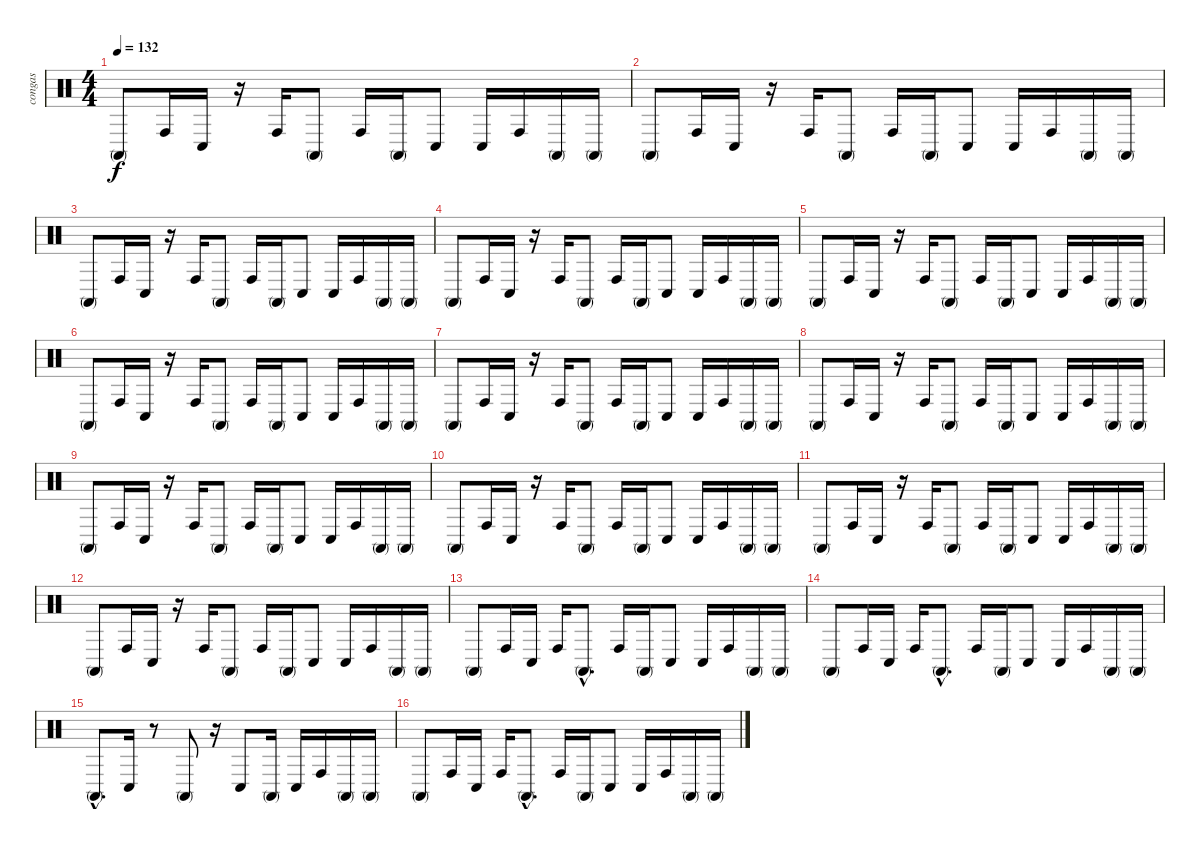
\track ("congas" "congas") {instrument percussion}
\staff {score}
\articulation defaults
\ts (4 4)
\tempo 132
\clef neutral
\ks c "Conga high (mute)".8{dy f} "Conga high (hit)".16 "Conga low (hit)".16
r.16 "Conga high (hit)".16 "Conga high (mute)".8 "Conga high (hit)".16 "Conga high (mute)".16 "Conga low (hit)".8 "Conga low (hit)".16 "Conga high (hit)".16 "Conga high (mute)".16 "Conga high (mute)".16 |
"Conga high (mute)".8 "Conga high (hit)".16 "Conga low (hit)".16 r.16 "Conga high (hit)".16 "Conga high (mute)".8 "Conga high (hit)".16 "Conga high (mute)".16 "Conga low (hit)".8 "Conga low (hit)".16 "Conga high (hit)".16 "Conga high (mute)".16 "Conga high (mute)".16 |
"Conga high (mute)".8 "Conga high (hit)".16 "Conga low (hit)".16 r.16 "Conga high (hit)".16 "Conga high (mute)".8 "Conga high (hit)".16 "Conga high (mute)".16 "Conga low (hit)".8 "Conga low (hit)".16 "Conga high (hit)".16 "Conga high (mute)".16 "Conga high (mute)".16 |
"Conga high (mute)".8 "Conga high (hit)".16 "Conga low (hit)".16 r.16 "Conga high (hit)".16 "Conga high (mute)".8 "Conga high (hit)".16 "Conga high (mute)".16 "Conga low (hit)".8 "Conga low (hit)".16 "Conga high (hit)".16 "Conga high (mute)".16 "Conga high (mute)".16 |
"Conga high (mute)".8 "Conga high (hit)".16 "Conga low (hit)".16 r.16 "Conga high (hit)".16 "Conga high (mute)".8 "Conga high (hit)".16 "Conga high (mute)".16 "Conga low (hit)".8 "Conga low (hit)".16 "Conga high (hit)".16 "Conga high (mute)".16 "Conga high (mute)".16 |
"Conga high (mute)".8 "Conga high (hit)".16 "Conga low (hit)".16 r.16 "Conga high (hit)".16 "Conga high (mute)".8 "Conga high (hit)".16 "Conga high (mute)".16 "Conga low (hit)".8 "Conga low (hit)".16 "Conga high (hit)".16 "Conga high (mute)".16 "Conga high (mute)".16 |
"Conga high (mute)".8 "Conga high (hit)".16 "Conga low (hit)".16 r.16 "Conga high (hit)".16 "Conga high (mute)".8 "Conga high (hit)".16 "Conga high (mute)".16 "Conga low (hit)".8 "Conga low (hit)".16 "Conga high (hit)".16 "Conga high (mute)".16 "Conga high (mute)".16 |
"Conga high (mute)".8 "Conga high (hit)".16 "Conga low (hit)".16 r.16 "Conga high (hit)".16 "Conga high (mute)".8 "Conga high (hit)".16 "Conga high (mute)".16 "Conga low (hit)".8 "Conga low (hit)".16 "Conga high (hit)".16 "Conga high (mute)".16 "Conga high (mute)".16 |
"Conga high (mute)".8 "Conga high (hit)".16 "Conga low (hit)".16 r.16 "Conga high (hit)".16 "Conga high (mute)".8 "Conga high (hit)".16 "Conga high (mute)".16 "Conga low (hit)".8 "Conga low (hit)".16 "Conga high (hit)".16 "Conga high (mute)".16 "Conga high (mute)".16 |
"Conga high (mute)".8 "Conga high (hit)".16 "Conga low (hit)".16 r.16 "Conga high (hit)".16 "Conga high (mute)".8 "Conga high (hit)".16 "Conga high (mute)".16 "Conga low (hit)".8 "Conga low (hit)".16 "Conga high (hit)".16 "Conga high (mute)".16 "Conga high (mute)".16 |
"Conga high (mute)".8 "Conga high (hit)".16 "Conga low (hit)".16 r.16 "Conga high (hit)".16 "Conga high (mute)".8 "Conga high (hit)".16 "Conga high (mute)".16 "Conga low (hit)".8 "Conga low (hit)".16 "Conga high (hit)".16 "Conga high (mute)".16 "Conga high (mute)".16 |
"Conga high (mute)".8 "Conga high (hit)".16 "Conga low (hit)".16 r.16 "Conga high (hit)".16 "Conga high (mute)".8 "Conga high (hit)".16 "Conga high (mute)".16 "Conga low (hit)".8 "Conga low (hit)".16 "Conga high (hit)".16 "Conga high (mute)".16 "Conga high (mute)".16 |
"Conga high (mute)".8 "Conga high (hit)".16 "Conga low (hit)".16 "Conga high (hit)".16 "Conga high (mute)"{hac}.8{d} "Conga high (hit)".16 "Conga high (mute)".16 "Conga low (hit)".8 "Conga low (hit)".16 "Conga high (hit)".16 "Conga high (mute)".16 "Conga high (mute)".16 |
"Conga high (mute)".8 "Conga high (hit)".16 "Conga low (hit)".16 "Conga high (hit)".16 "Conga high (mute)"{hac}.8{d} "Conga high (hit)".16 "Conga high (mute)".16 "Conga low (hit)".8 "Conga low (hit)".16 "Conga high (hit)".16 "Conga high (mute)".16 "Conga high (mute)".16 |
"Conga high (mute)"{hac}.8{d} "Conga low (hit)".16 r.8 "Conga high (mute)".8 r.16 "Conga low (hit)".8 "Conga high (mute)".16 "Conga low (hit)".16 "Conga high (hit)".16 "Conga high (mute)".16 "Conga high (mute)".16 |
"Conga high (mute)".8 "Conga high (hit)".16 "Conga low (hit)".16 "Conga high (hit)".16 "Conga high (mute)"{hac}.8{d} "Conga high (hit)".16 "Conga high (mute)".16 "Conga low (hit)".8 "Conga low (hit)".16 "Conga high (hit)".16 "Conga high (mute)".16 "Conga high (mute)".16
